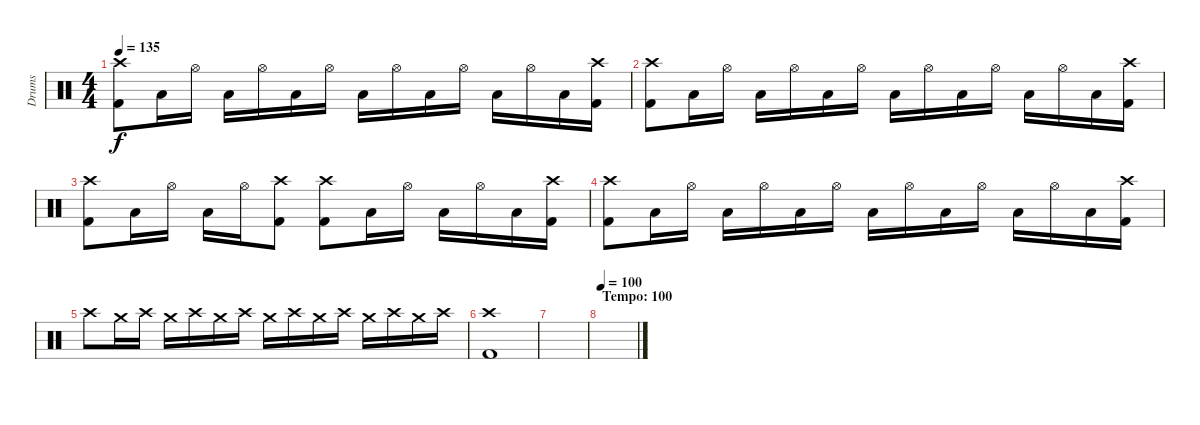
\track ("Drums" "Drums") {instrument percussion}
\staff {score}
\articulation defaults
\ts (4 4)
\tempo 135
\clef neutral
\ks c
("Crash high (hit)" "Kick (hit) 2").8{dy f} "Low Tom (hit)".16 "Hi-Hat (open)".16 "Low Tom (hit)".16 "Hi-Hat (open)".16 "Low Tom (hit)".16 "Hi-Hat (open)".16 "Low Tom (hit)".16 "Hi-Hat (open)".16 "Low Tom (hit)".16 "Hi-Hat (open)".16 "Low Tom (hit)".16 "Hi-Hat (open)".16 "Low Tom (hit)".16 ("Crash high (hit)" "Kick (hit) 2").16 |
("Crash high (hit)" "Kick (hit) 2").8 "Low Tom (hit)".16 "Hi-Hat (open)".16 "Low Tom (hit)".16 "Hi-Hat (open)".16 "Low Tom (hit)".16 "Hi-Hat (open)".16 "Low Tom (hit)".16 "Hi-Hat (open)".16 "Low Tom (hit)".16 "Hi-Hat (open)".16 "Low Tom (hit)".16 "Hi-Hat (open)".16 "Low Tom (hit)".16 ("Crash high (hit)" "Kick (hit) 2").16 |
("Kick (hit) 2" "Crash high (hit)").8 "Low Tom (hit)".16 "Hi-Hat (open)".16 "Low Tom (hit)".16 "Hi-Hat (open)".16 ("Kick (hit) 2" "Crash high (hit)").8 ("Kick (hit) 2" "Crash high (hit)").8 "Low Tom (hit)".16 "Hi-Hat (open)".16 "Low Tom (hit)".16 "Hi-Hat (open)".16 "Low Tom (hit)".16 ("Crash high (hit)" "Kick (hit) 2").16 |
("Crash high (hit)" "Kick (hit) 2").8 "Low Tom (hit)".16 "Hi-Hat (open)".16 "Low Tom (hit)".16 "Hi-Hat (open)".16 "Low Tom (hit)".16 "Hi-Hat (open)".16 "Low Tom (hit)".16 "Hi-Hat (open)".16 "Low Tom (hit)".16 "Hi-Hat (open)".16 "Low Tom (hit)".16 "Hi-Hat (open)".16 "Low Tom (hit)".16 ("Crash high (hit)" "Kick (hit) 2").16 |
"Crash high (hit)".8 "Crash medium (hit)".16 "Crash high (hit)".16 "Crash medium (hit)".16 "Crash high (hit)".16 "Crash medium (hit)".16 "Crash high (hit)".16 "Crash medium (hit)".16 "Crash high (hit)".16 "Crash medium (hit)".16 "Crash high (hit)".16 "Crash medium (hit)".16 "Crash high (hit)".16 "Crash medium (hit)".16 "Crash high (hit)".16 |
("Kick (hit) 2" "Crash high (hit)").1 |
|
\section ("" "Tempo: 100")
\tempo 100
